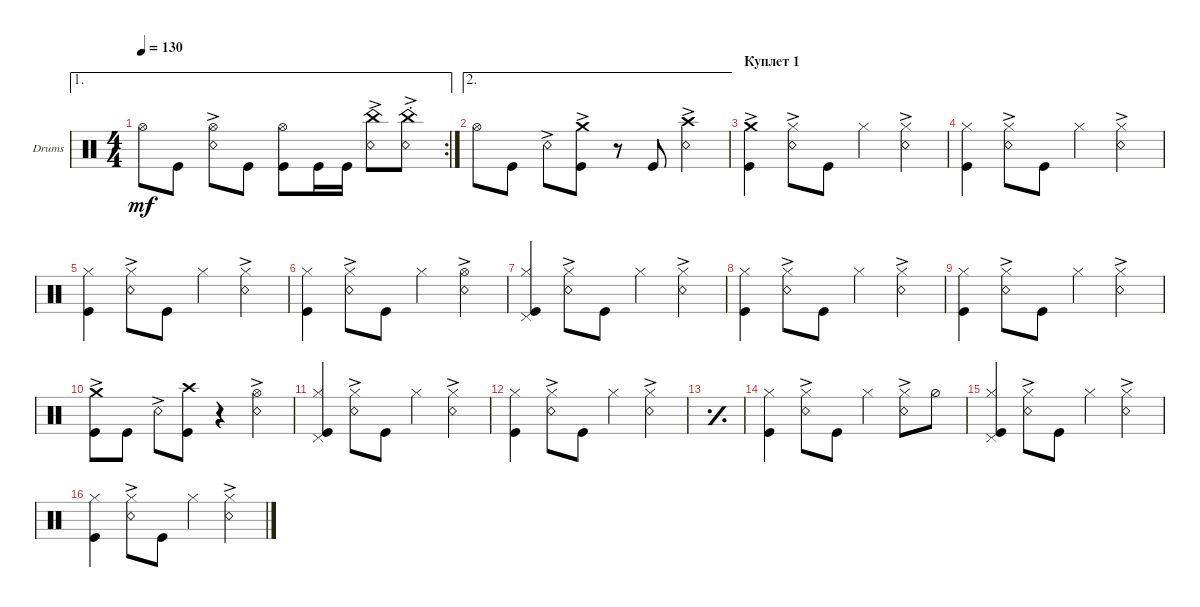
\defaultSystemsLayout 4
\bracketExtendMode groupsimilarinstruments
\firstSystemTrackNameOrientation horizontal
\otherSystemsTrackNameOrientation horizontal
\track ("Drumkit" "Drums") {instrument percussion}
\staff {score}
\articulation defaults
\ae 1
\rc 2
\ts (4 4)
\tempo 130
\clef neutral
\ks c "Hi-Hat (open)".8{dy mf} "Kick (hit)".8
("Snare (rim shot)"{ac} "Hi-Hat (open)").8 "Kick (hit)".8 ("Kick (hit)" "Hi-Hat (open)").8 "Kick (hit)".16 "Kick (hit)".16 ("China (hit)" "Snare (rim shot)"{ac}).8 ("China (hit)"{st} "Snare (rim shot)"{ac}).8 |
\ae 2 "Hi-Hat (open)".8 "Kick (hit)".8 "Snare (rim shot)"{ac}.8
("Kick (hit)" "Crash medium (hit)"{ac}).8 r.8 "Kick (hit)".8 ("Snare (rim shot)"{ac} "Crash high (hit)").4 |
\section ("" "Куплет 1")
("Crash medium (hit)"{ac} "Kick (hit)").4 ("Hi-Hat (closed)" "Snare (rim shot)"{ac}).8 "Kick (hit)".8 "Hi-Hat (closed)".4 ("Hi-Hat (closed)" "Snare (rim shot)"{ac}).4 |
("Kick (hit)" "Hi-Hat (closed)").4 ("Hi-Hat (closed)" "Snare (rim shot)"{ac}).8 "Kick (hit)".8 "Hi-Hat (closed)".4 ("Hi-Hat (closed)" "Snare (rim shot)"{ac}).4 |
("Kick (hit)" "Hi-Hat (closed)").4 ("Hi-Hat (closed)" "Snare (rim shot)"{ac}).8 "Kick (hit)".8 "Hi-Hat (closed)".4 ("Hi-Hat (closed)" "Snare (rim shot)"{ac}).4 |
("Kick (hit)" "Hi-Hat (closed)").4 ("Hi-Hat (closed)" "Snare (rim shot)"{ac}).8 "Kick (hit)".8 "Hi-Hat (closed)".4 ("Hi-Hat (open)" "Snare (rim shot)"{ac}).4 |
("Kick (hit)" "Hi-Hat (closed)" "Pedal Hi-Hat (hit)").4 ("Hi-Hat (closed)" "Snare (rim shot)"{ac}).8 "Kick (hit)".8 "Hi-Hat (closed)".4 ("Hi-Hat (closed)" "Snare (rim shot)"{ac}).4 |
("Kick (hit)" "Hi-Hat (closed)").4 ("Hi-Hat (closed)" "Snare (rim shot)"{ac}).8 "Kick (hit)".8 "Hi-Hat (closed)".4 ("Hi-Hat (closed)" "Snare (rim shot)"{ac}).4 |
("Kick (hit)" "Hi-Hat (closed)").4 ("Hi-Hat (closed)" "Snare (rim shot)"{ac}).8 "Kick (hit)".8 "Hi-Hat (closed)".4 ("Hi-Hat (closed)" "Snare (rim shot)"{ac}).4 |
("Kick (hit)" "Crash medium (hit)"{ac}).8 "Kick (hit)".8 "Snare (rim shot)"{ac}.8 ("Kick (hit)" "Crash high (hit)").8 r.4 ("Hi-Hat (open)" "Snare (rim shot)"{ac}).4 |
("Kick (hit)" "Hi-Hat (closed)" "Pedal Hi-Hat (hit)").4 ("Hi-Hat (closed)" "Snare (rim shot)"{ac}).8 "Kick (hit)".8 "Hi-Hat (closed)".4 ("Hi-Hat (closed)" "Snare (rim shot)"{ac}).4 |
("Kick (hit)" "Hi-Hat (closed)").4 ("Hi-Hat (closed)" "Snare (rim shot)"{ac}).8 "Kick (hit)".8 "Hi-Hat (closed)".4 ("Hi-Hat (closed)" "Snare (rim shot)"{ac}).4 |
\simile simple
|
\simile none
("Kick (hit)" "Hi-Hat (closed)").4 ("Hi-Hat (closed)" "Snare (rim shot)"{ac}).8 "Kick (hit)".8 "Hi-Hat (closed)".4 ("Hi-Hat (closed)" "Snare (rim shot)"{ac}).8 "Hi-Hat (half)".8 |
("Kick (hit)" "Hi-Hat (closed)" "Pedal Hi-Hat (hit)").4 ("Hi-Hat (closed)" "Snare (rim shot)"{ac}).8 "Kick (hit)".8 "Hi-Hat (closed)".4 ("Hi-Hat (closed)" "Snare (rim shot)"{ac}).4 |
("Kick (hit)" "Hi-Hat (closed)").4 ("Hi-Hat (closed)" "Snare (rim shot)"{ac}).8 "Kick (hit)".8 "Hi-Hat (closed)".4 ("Hi-Hat (closed)" "Snare (rim shot)"{ac}).4
